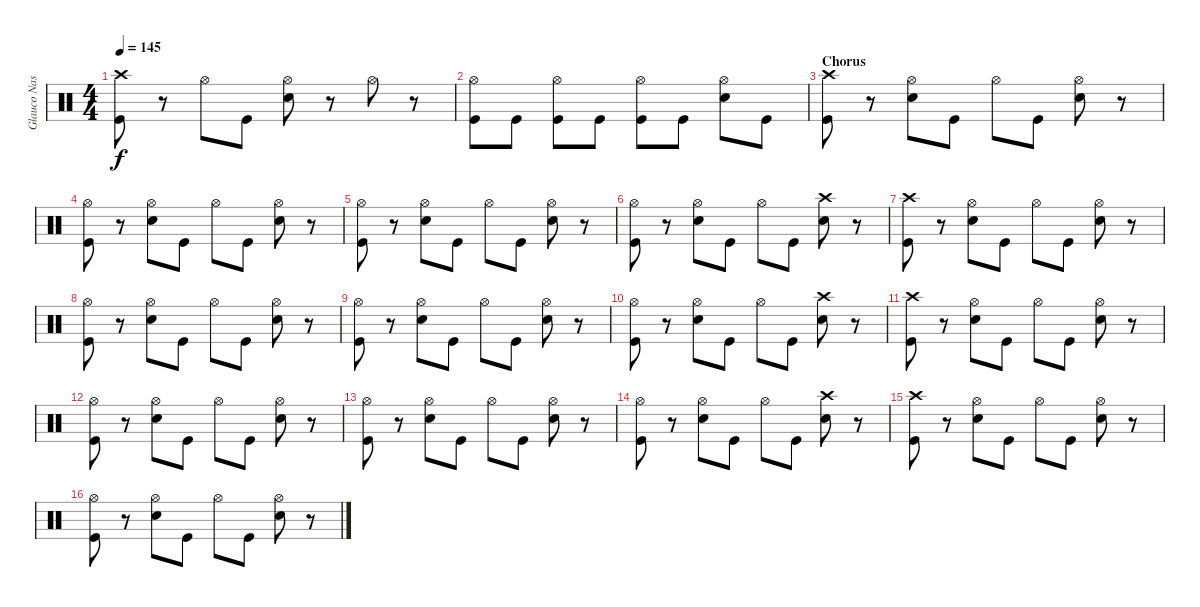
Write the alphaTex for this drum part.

\track ("Glauco Nastácia" "Glauco Nas") {instrument percussion}
\staff {score}
\articulation defaults
\ts (4 4)
\tempo 145
\clef neutral
\ks c
("Crash high (hit)" "Kick (hit)").8{dy f} r.8 "Hi-Hat (open)".8 "Kick (hit)".8 ("Hi-Hat (open)" "Electric Snare (hit)").8 r.8 "Hi-Hat (open)".8 r.8 |
("Hi-Hat (open)" "Kick (hit)").8 "Kick (hit)".8 ("Hi-Hat (open)" "Kick (hit)").8 "Kick (hit)".8 ("Hi-Hat (open)" "Kick (hit)").8 "Kick (hit)".8 ("Hi-Hat (open)" "Electric Snare (hit)").8 "Kick (hit)".8 |
\section ("" "Chorus")
("Crash high (hit)" "Kick (hit)").8 r.8 ("Hi-Hat (open)" "Electric Snare (hit)").8 "Kick (hit)".8 "Hi-Hat (open)".8 "Kick (hit)".8 ("Hi-Hat (open)" "Electric Snare (hit)").8 r.8 |
("Hi-Hat (open)" "Kick (hit)").8 r.8 ("Hi-Hat (open)" "Electric Snare (hit)").8 "Kick (hit)".8 "Hi-Hat (open)".8 "Kick (hit)".8 ("Hi-Hat (open)" "Electric Snare (hit)").8 r.8 |
("Hi-Hat (open)" "Kick (hit)").8 r.8 ("Hi-Hat (open)" "Electric Snare (hit)").8 "Kick (hit)".8 "Hi-Hat (open)".8 "Kick (hit)".8 ("Hi-Hat (open)" "Electric Snare (hit)").8 r.8 |
("Hi-Hat (open)" "Kick (hit)").8 r.8 ("Hi-Hat (open)" "Electric Snare (hit)").8 "Kick (hit)".8 "Hi-Hat (open)".8 "Kick (hit)".8 ("Crash high (hit)" "Electric Snare (hit)").8 r.8 |
("Crash high (hit)" "Kick (hit)").8 r.8 ("Hi-Hat (open)" "Electric Snare (hit)").8 "Kick (hit)".8 "Hi-Hat (open)".8 "Kick (hit)".8 ("Hi-Hat (open)" "Electric Snare (hit)").8 r.8 |
("Hi-Hat (open)" "Kick (hit)").8 r.8 ("Hi-Hat (open)" "Electric Snare (hit)").8 "Kick (hit)".8 "Hi-Hat (open)".8 "Kick (hit)".8 ("Hi-Hat (open)" "Electric Snare (hit)").8 r.8 |
("Hi-Hat (open)" "Kick (hit)").8 r.8 ("Hi-Hat (open)" "Electric Snare (hit)").8 "Kick (hit)".8 "Hi-Hat (open)".8 "Kick (hit)".8 ("Hi-Hat (open)" "Electric Snare (hit)").8 r.8 |
("Hi-Hat (open)" "Kick (hit)").8 r.8 ("Hi-Hat (open)" "Electric Snare (hit)").8 "Kick (hit)".8 "Hi-Hat (open)".8 "Kick (hit)".8 ("Crash high (hit)" "Electric Snare (hit)").8 r.8 |
("Crash high (hit)" "Kick (hit)").8 r.8 ("Hi-Hat (open)" "Electric Snare (hit)").8 "Kick (hit)".8 "Hi-Hat (open)".8 "Kick (hit)".8 ("Hi-Hat (open)" "Electric Snare (hit)").8 r.8 |
("Hi-Hat (open)" "Kick (hit)").8 r.8 ("Hi-Hat (open)" "Electric Snare (hit)").8 "Kick (hit)".8 "Hi-Hat (open)".8 "Kick (hit)".8 ("Hi-Hat (open)" "Electric Snare (hit)").8 r.8 |
("Hi-Hat (open)" "Kick (hit)").8 r.8 ("Hi-Hat (open)" "Electric Snare (hit)").8 "Kick (hit)".8 "Hi-Hat (open)".8 "Kick (hit)".8 ("Hi-Hat (open)" "Electric Snare (hit)").8 r.8 |
("Hi-Hat (open)" "Kick (hit)").8 r.8 ("Hi-Hat (open)" "Electric Snare (hit)").8 "Kick (hit)".8 "Hi-Hat (open)".8 "Kick (hit)".8 ("Crash high (hit)" "Electric Snare (hit)").8 r.8 |
("Crash high (hit)" "Kick (hit)").8 r.8 ("Hi-Hat (open)" "Electric Snare (hit)").8 "Kick (hit)".8 "Hi-Hat (open)".8 "Kick (hit)".8 ("Hi-Hat (open)" "Electric Snare (hit)").8 r.8 |
("Hi-Hat (open)" "Kick (hit)").8 r.8 ("Hi-Hat (open)" "Electric Snare (hit)").8 "Kick (hit)".8 "Hi-Hat (open)".8 "Kick (hit)".8 ("Hi-Hat (open)" "Electric Snare (hit)").8 r.8
